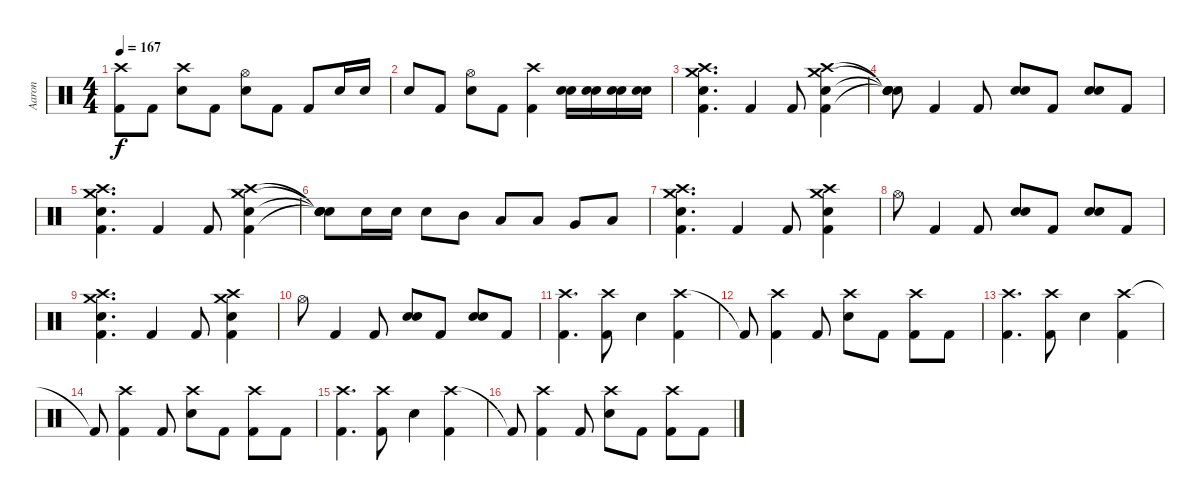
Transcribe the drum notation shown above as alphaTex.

\track ("Aaron" "Aaron") {instrument percussion}
\staff {score}
\articulation defaults
\ts (4 4)
\tempo 167
\clef neutral
\ks c
("Crash high (hit)" "Kick (hit) 2").8{dy f} "Kick (hit) 2".8 ("Crash high (hit)" "Electric Snare (hit)").8 "Kick (hit) 2".8 ("Hi-Hat (open)" "Electric Snare (hit)").8 "Kick (hit) 2".8 "Kick (hit) 2".8 "Electric Snare (hit)".16 "Electric Snare (hit)".16 |
"Electric Snare (hit)".8 "Kick (hit) 2".8 ("Hi-Hat (open)" "Electric Snare (hit)").8 "Kick (hit) 2".8 ("Crash high (hit)" "Kick (hit) 2").4 ("Electric Snare (hit)" "Electric Snare (hit)").16 ("Electric Snare (hit)" "Electric Snare (hit)").16 ("Electric Snare (hit)" "Electric Snare (hit)").16 ("Electric Snare (hit)" "Electric Snare (hit)").16 |
("Crash high (hit)" "Crash medium (hit)" "Electric Snare (hit)" "Kick (hit) 2").4{d} "Kick (hit) 2".4 "Kick (hit) 2".8 ("Crash high (hit)" "Crash medium (hit)" "Electric Snare (hit)" "Kick (hit) 2").4 |
("Snare (hit)"{t} "Snare (hit)"{t} "Snare (hit)"{t} "Snare (hit)"{t}).8 "Kick (hit) 2".4 "Kick (hit) 2".8 ("Electric Snare (hit)" "Electric Snare (hit)").8 "Kick (hit) 2".8 ("Electric Snare (hit)" "Electric Snare (hit)").8 "Kick (hit) 2".8 |
("Crash high (hit)" "Crash medium (hit)" "Electric Snare (hit)" "Kick (hit) 2").4{d} "Kick (hit) 2".4 "Kick (hit) 2".8 ("Crash high (hit)" "Crash medium (hit)" "Electric Snare (hit)" "Kick (hit) 2").4 |
("Snare (hit)"{t} "Snare (hit)"{t} "Snare (hit)"{t} "Snare (hit)"{t}).8 "Electric Snare (hit)".16 "Electric Snare (hit)".16 "Electric Snare (hit)".8 "Mid Tom (hit)".8 "Low Tom (hit)".8 "Low Tom (hit)".8 "Very Low Tom (hit)".8 "Low Floor Tom (hit)".8 |
("Crash high (hit)" "Crash medium (hit)" "Electric Snare (hit)" "Kick (hit) 2").4{d} "Kick (hit) 2".4 "Kick (hit) 2".8 ("Crash high (hit)" "Crash medium (hit)" "Electric Snare (hit)" "Kick (hit) 2").4 |
"Hi-Hat (open)".8 "Kick (hit) 2".4 "Kick (hit) 2".8 ("Electric Snare (hit)" "Electric Snare (hit)").8 "Kick (hit) 2".8 ("Electric Snare (hit)" "Electric Snare (hit)").8 "Kick (hit) 2".8 |
("Crash high (hit)" "Crash medium (hit)" "Electric Snare (hit)" "Kick (hit) 2").4{d} "Kick (hit) 2".4 "Kick (hit) 2".8 ("Crash high (hit)" "Crash medium (hit)" "Electric Snare (hit)" "Kick (hit) 2").4 |
"Hi-Hat (open)".8 "Kick (hit) 2".4 "Kick (hit) 2".8 ("Electric Snare (hit)" "Electric Snare (hit)").8 "Kick (hit) 2".8 ("Electric Snare (hit)" "Electric Snare (hit)").8 "Kick (hit) 2".8 |
("Crash high (hit)" "Kick (hit) 2").4{d} ("Crash high (hit)" "Kick (hit) 2").8 "Electric Snare (hit)".4 ("Crash high (hit)" "Kick (hit) 2").4 |
"Kick (hit) 2"{t}.8 ("Crash high (hit)" "Kick (hit) 2").4 "Kick (hit) 2".8 ("Crash high (hit)" "Electric Snare (hit)").8 "Kick (hit) 2".8 ("Crash high (hit)" "Kick (hit) 2").8 "Kick (hit) 2".8 |
("Crash high (hit)" "Kick (hit) 2").4{d} ("Crash high (hit)" "Kick (hit) 2").8 "Electric Snare (hit)".4 ("Crash high (hit)" "Kick (hit) 2").4 |
"Kick (hit) 2"{t}.8 ("Crash high (hit)" "Kick (hit) 2").4 "Kick (hit) 2".8 ("Crash high (hit)" "Electric Snare (hit)").8 "Kick (hit) 2".8 ("Crash high (hit)" "Kick (hit) 2").8 "Kick (hit) 2".8 |
("Crash high (hit)" "Kick (hit) 2").4{d} ("Crash high (hit)" "Kick (hit) 2").8 "Electric Snare (hit)".4 ("Crash high (hit)" "Kick (hit) 2").4 |
"Kick (hit) 2"{t}.8 ("Crash high (hit)" "Kick (hit) 2").4 "Kick (hit) 2".8 ("Crash high (hit)" "Electric Snare (hit)").8 "Kick (hit) 2".8 ("Crash high (hit)" "Kick (hit) 2").8 "Kick (hit) 2".8
